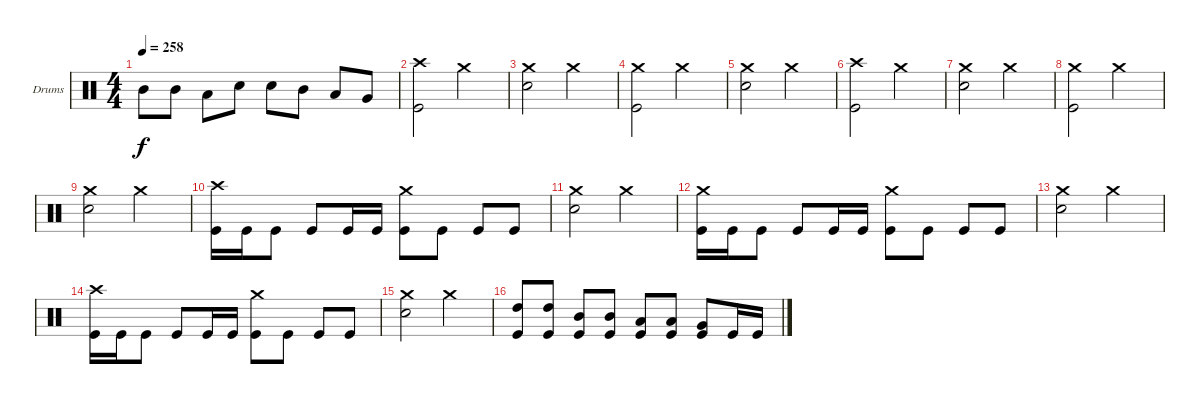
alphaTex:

\defaultSystemsLayout 4
\bracketExtendMode groupsimilarinstruments
\firstSystemTrackNameOrientation horizontal
\otherSystemsTrackNameOrientation horizontal
\track ("Drumkit" "Drums") {instrument percussion}
\staff {score}
\articulation defaults
\ts (4 4)
\tempo 258
\clef neutral
\ks c "Mid Tom (hit)".8{dy f} "Mid Tom (hit)".8 "Low Tom (hit)".8 "Snare (hit) 2".8 "Snare (hit) 2".8 "Mid Tom (hit)".8 "Low Tom (hit)".8 "Very Low Tom (hit)".8
|
("Kick (hit)" "Crash high (hit)").2 "Crash medium (hit)".2 |
("Crash medium (hit)" "Snare (hit) 2").2 "Crash medium (hit)".2 |
("Crash medium (hit)" "Kick (hit)").2 "Crash medium (hit)".2 |
("Crash medium (hit)" "Snare (hit) 2").2 "Crash medium (hit)".2 |
("Crash high (hit)" "Kick (hit)").2 "Crash medium (hit)".2 |
("Snare (hit) 2" "Crash medium (hit)").2 "Crash medium (hit)".2 |
("Kick (hit)" "Crash medium (hit)").2 "Crash medium (hit)".2 |
("Snare (hit) 2" "Crash medium (hit)").2 "Crash medium (hit)".2 |
("Crash high (hit)" "Kick (hit)").16 "Kick (hit)".16 "Kick (hit)".8 "Kick (hit)".8 "Kick (hit)".16 "Kick (hit)".16 ("Kick (hit)" "Crash medium (hit)").8 "Kick (hit)".8 "Kick (hit)".8 "Kick (hit)".8 |
("Snare (hit) 2" "Crash medium (hit)").2 "Crash medium (hit)".2 |
("Kick (hit)" "Crash medium (hit)").16 "Kick (hit)".16 "Kick (hit)".8 "Kick (hit)".8 "Kick (hit)".16 "Kick (hit)".16 ("Kick (hit)" "Crash medium (hit)").8 "Kick (hit)".8 "Kick (hit)".8 "Kick (hit)".8 |
("Snare (hit) 2" "Crash medium (hit)").2 "Crash medium (hit)".2 |
("Crash high (hit)" "Kick (hit)").16 "Kick (hit)".16 "Kick (hit)".8 "Kick (hit)".8 "Kick (hit)".16 "Kick (hit)".16 ("Kick (hit)" "Crash medium (hit)").8 "Kick (hit)".8 "Kick (hit)".8 "Kick (hit)".8 |
("Snare (hit) 2" "Crash medium (hit)").2 "Crash medium (hit)".2 |
("Kick (hit)" "High Tom (hit)").8 ("Kick (hit)" "High Tom (hit)").8 ("Kick (hit)" "Mid Tom (hit)").8 ("Kick (hit)" "Mid Tom (hit)").8 ("Kick (hit)" "Low Tom (hit)").8 ("Kick (hit)" "Low Tom (hit)").8 ("Kick (hit)" "Very Low Tom (hit)").8 "Kick (hit)".16 "Kick (hit)".16
